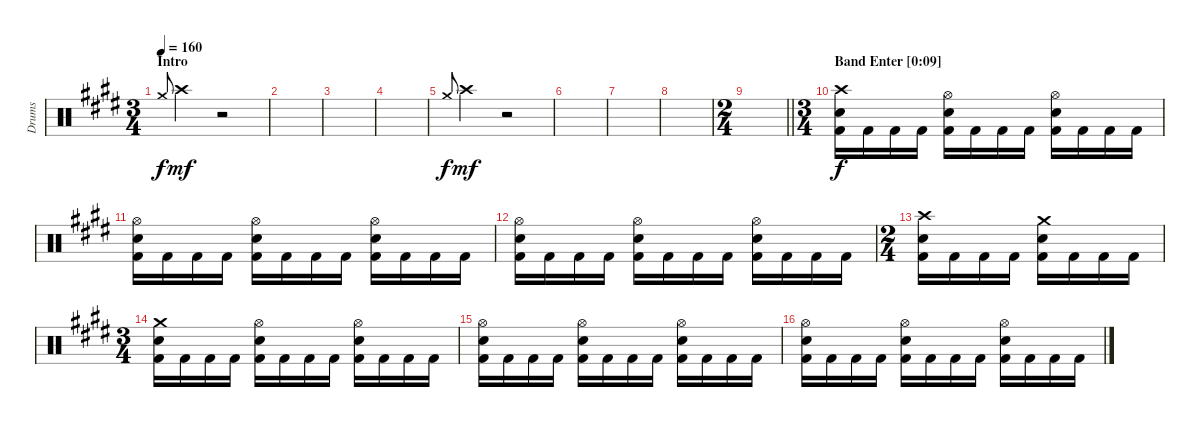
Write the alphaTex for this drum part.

\track ("Drums" "Drums") {instrument percussion}
\staff {score}
\articulation defaults
\ts (3 4)
\section ("" "Intro")
\tempo 160
\clef neutral
\ks c#minor "Crash medium (hit)".8{gr onbeat dy f} "Crash high (hit)".4{dy mf}
r.2 |
|
|
|
"Crash medium (hit)".8{gr onbeat dy f} "Crash high (hit)".4{dy mf} r.2 |
|
|
|
\ts (2 4)
\barLineRight lightlight
|
\ts (3 4)
\section ("" "Band Enter [0:09]")
("Crash high (hit)" "Snare (hit) 2" "Kick (hit) 2").16{dy f} "Kick (hit) 2".16 "Kick (hit) 2".16 "Kick (hit) 2".16 ("Hi-Hat (open)" "Snare (hit) 2" "Kick (hit) 2").16 "Kick (hit) 2".16 "Kick (hit) 2".16 "Kick (hit) 2".16 ("Hi-Hat (open)" "Snare (hit) 2" "Kick (hit) 2").16 "Kick (hit) 2".16 "Kick (hit) 2".16 "Kick (hit) 2".16 |
("Hi-Hat (open)" "Snare (hit) 2" "Kick (hit) 2").16 "Kick (hit) 2".16 "Kick (hit) 2".16 "Kick (hit) 2".16 ("Hi-Hat (open)" "Snare (hit) 2" "Kick (hit) 2").16 "Kick (hit) 2".16 "Kick (hit) 2".16 "Kick (hit) 2".16 ("Hi-Hat (open)" "Snare (hit) 2" "Kick (hit) 2").16 "Kick (hit) 2".16 "Kick (hit) 2".16 "Kick (hit) 2".16 |
("Hi-Hat (open)" "Snare (hit) 2" "Kick (hit) 2").16 "Kick (hit) 2".16 "Kick (hit) 2".16 "Kick (hit) 2".16 ("Hi-Hat (open)" "Snare (hit) 2" "Kick (hit) 2").16 "Kick (hit) 2".16 "Kick (hit) 2".16 "Kick (hit) 2".16 ("Hi-Hat (open)" "Snare (hit) 2" "Kick (hit) 2").16 "Kick (hit) 2".16 "Kick (hit) 2".16 "Kick (hit) 2".16 |
\ts (2 4)
("Crash high (hit)" "Snare (hit) 2" "Kick (hit) 2").16 "Kick (hit) 2".16 "Kick (hit) 2".16 "Kick (hit) 2".16 ("Crash medium (hit)" "Snare (hit) 2" "Kick (hit) 2").16 "Kick (hit) 2".16 "Kick (hit) 2".16 "Kick (hit) 2".16 |
\ts (3 4)
("Crash medium (hit)" "Snare (hit) 2" "Kick (hit) 2").16 "Kick (hit) 2".16 "Kick (hit) 2".16 "Kick (hit) 2".16 ("Hi-Hat (open)" "Snare (hit) 2" "Kick (hit) 2").16 "Kick (hit) 2".16 "Kick (hit) 2".16 "Kick (hit) 2".16 ("Hi-Hat (open)" "Snare (hit) 2" "Kick (hit) 2").16 "Kick (hit) 2".16 "Kick (hit) 2".16 "Kick (hit) 2".16 |
("Hi-Hat (open)" "Snare (hit) 2" "Kick (hit) 2").16 "Kick (hit) 2".16 "Kick (hit) 2".16 "Kick (hit) 2".16 ("Hi-Hat (open)" "Snare (hit) 2" "Kick (hit) 2").16 "Kick (hit) 2".16 "Kick (hit) 2".16 "Kick (hit) 2".16 ("Hi-Hat (open)" "Snare (hit) 2" "Kick (hit) 2").16 "Kick (hit) 2".16 "Kick (hit) 2".16 "Kick (hit) 2".16 |
("Hi-Hat (open)" "Snare (hit) 2" "Kick (hit) 2").16 "Kick (hit) 2".16 "Kick (hit) 2".16 "Kick (hit) 2".16 ("Hi-Hat (open)" "Snare (hit) 2" "Kick (hit) 2").16 "Kick (hit) 2".16 "Kick (hit) 2".16 "Kick (hit) 2".16 ("Hi-Hat (open)" "Snare (hit) 2" "Kick (hit) 2").16 "Kick (hit) 2".16 "Kick (hit) 2".16 "Kick (hit) 2".16
